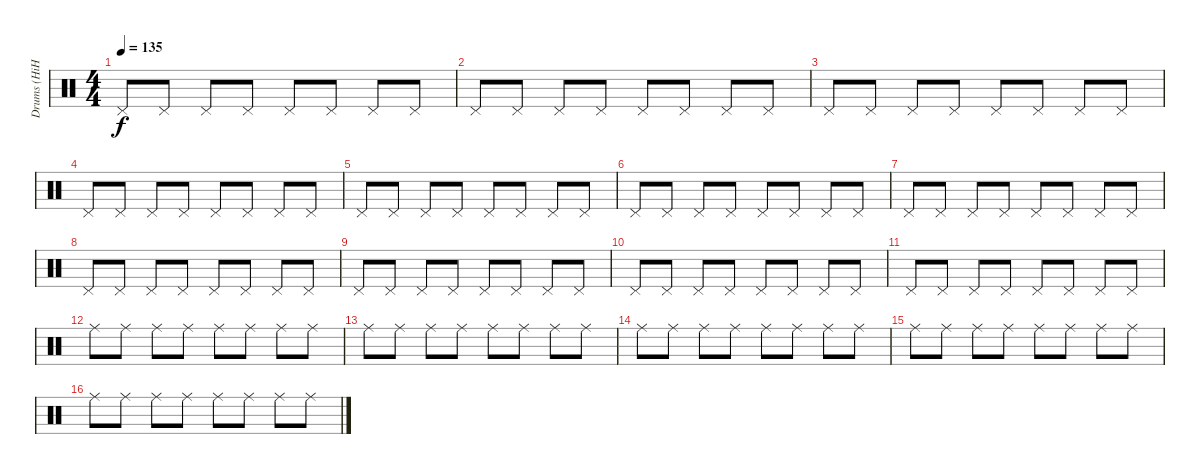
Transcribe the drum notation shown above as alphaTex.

\track ("Drums (HiHat)" "Drums (HiH") {instrument percussion}
\staff {score}
\articulation defaults
\ts (4 4)
\tempo 135
\clef neutral
\ks c "Pedal Hi-Hat (hit)".8{dy f} "Pedal Hi-Hat (hit)".8 "Pedal Hi-Hat (hit)".8 "Pedal Hi-Hat (hit)".8 "Pedal Hi-Hat (hit)".8 "Pedal Hi-Hat (hit)".8 "Pedal Hi-Hat (hit)".8 "Pedal Hi-Hat (hit)".8
|
"Pedal Hi-Hat (hit)".8 "Pedal Hi-Hat (hit)".8 "Pedal Hi-Hat (hit)".8 "Pedal Hi-Hat (hit)".8 "Pedal Hi-Hat (hit)".8 "Pedal Hi-Hat (hit)".8 "Pedal Hi-Hat (hit)".8 "Pedal Hi-Hat (hit)".8 |
"Pedal Hi-Hat (hit)".8 "Pedal Hi-Hat (hit)".8 "Pedal Hi-Hat (hit)".8 "Pedal Hi-Hat (hit)".8 "Pedal Hi-Hat (hit)".8 "Pedal Hi-Hat (hit)".8 "Pedal Hi-Hat (hit)".8 "Pedal Hi-Hat (hit)".8 |
"Pedal Hi-Hat (hit)".8 "Pedal Hi-Hat (hit)".8 "Pedal Hi-Hat (hit)".8 "Pedal Hi-Hat (hit)".8 "Pedal Hi-Hat (hit)".8 "Pedal Hi-Hat (hit)".8 "Pedal Hi-Hat (hit)".8 "Pedal Hi-Hat (hit)".8 |
"Pedal Hi-Hat (hit)".8 "Pedal Hi-Hat (hit)".8 "Pedal Hi-Hat (hit)".8 "Pedal Hi-Hat (hit)".8 "Pedal Hi-Hat (hit)".8 "Pedal Hi-Hat (hit)".8 "Pedal Hi-Hat (hit)".8 "Pedal Hi-Hat (hit)".8 |
"Pedal Hi-Hat (hit)".8 "Pedal Hi-Hat (hit)".8 "Pedal Hi-Hat (hit)".8 "Pedal Hi-Hat (hit)".8 "Pedal Hi-Hat (hit)".8 "Pedal Hi-Hat (hit)".8 "Pedal Hi-Hat (hit)".8 "Pedal Hi-Hat (hit)".8 |
"Pedal Hi-Hat (hit)".8 "Pedal Hi-Hat (hit)".8 "Pedal Hi-Hat (hit)".8 "Pedal Hi-Hat (hit)".8 "Pedal Hi-Hat (hit)".8 "Pedal Hi-Hat (hit)".8 "Pedal Hi-Hat (hit)".8 "Pedal Hi-Hat (hit)".8 |
"Pedal Hi-Hat (hit)".8 "Pedal Hi-Hat (hit)".8 "Pedal Hi-Hat (hit)".8 "Pedal Hi-Hat (hit)".8 "Pedal Hi-Hat (hit)".8 "Pedal Hi-Hat (hit)".8 "Pedal Hi-Hat (hit)".8 "Pedal Hi-Hat (hit)".8 |
"Pedal Hi-Hat (hit)".8 "Pedal Hi-Hat (hit)".8 "Pedal Hi-Hat (hit)".8 "Pedal Hi-Hat (hit)".8 "Pedal Hi-Hat (hit)".8 "Pedal Hi-Hat (hit)".8 "Pedal Hi-Hat (hit)".8 "Pedal Hi-Hat (hit)".8 |
"Pedal Hi-Hat (hit)".8 "Pedal Hi-Hat (hit)".8 "Pedal Hi-Hat (hit)".8 "Pedal Hi-Hat (hit)".8 "Pedal Hi-Hat (hit)".8 "Pedal Hi-Hat (hit)".8 "Pedal Hi-Hat (hit)".8 "Pedal Hi-Hat (hit)".8 |
"Pedal Hi-Hat (hit)".8 "Pedal Hi-Hat (hit)".8 "Pedal Hi-Hat (hit)".8 "Pedal Hi-Hat (hit)".8 "Pedal Hi-Hat (hit)".8 "Pedal Hi-Hat (hit)".8 "Pedal Hi-Hat (hit)".8 "Pedal Hi-Hat (hit)".8 |
"Ride (middle)".8 "Ride (middle)".8 "Ride (middle)".8 "Ride (middle)".8 "Ride (middle)".8 "Ride (middle)".8 "Ride (middle)".8 "Ride (middle)".8 |
"Ride (middle)".8 "Ride (middle)".8 "Ride (middle)".8 "Ride (middle)".8 "Ride (middle)".8 "Ride (middle)".8 "Ride (middle)".8 "Ride (middle)".8 |
"Ride (middle)".8 "Ride (middle)".8 "Ride (middle)".8 "Ride (middle)".8 "Ride (middle)".8 "Ride (middle)".8 "Ride (middle)".8 "Ride (middle)".8 |
"Ride (middle)".8 "Ride (middle)".8 "Ride (middle)".8 "Ride (middle)".8 "Ride (middle)".8 "Ride (middle)".8 "Ride (middle)".8 "Ride (middle)".8 |
"Ride (middle)".8 "Ride (middle)".8 "Ride (middle)".8 "Ride (middle)".8 "Ride (middle)".8 "Ride (middle)".8 "Ride (middle)".8 "Ride (middle)".8
